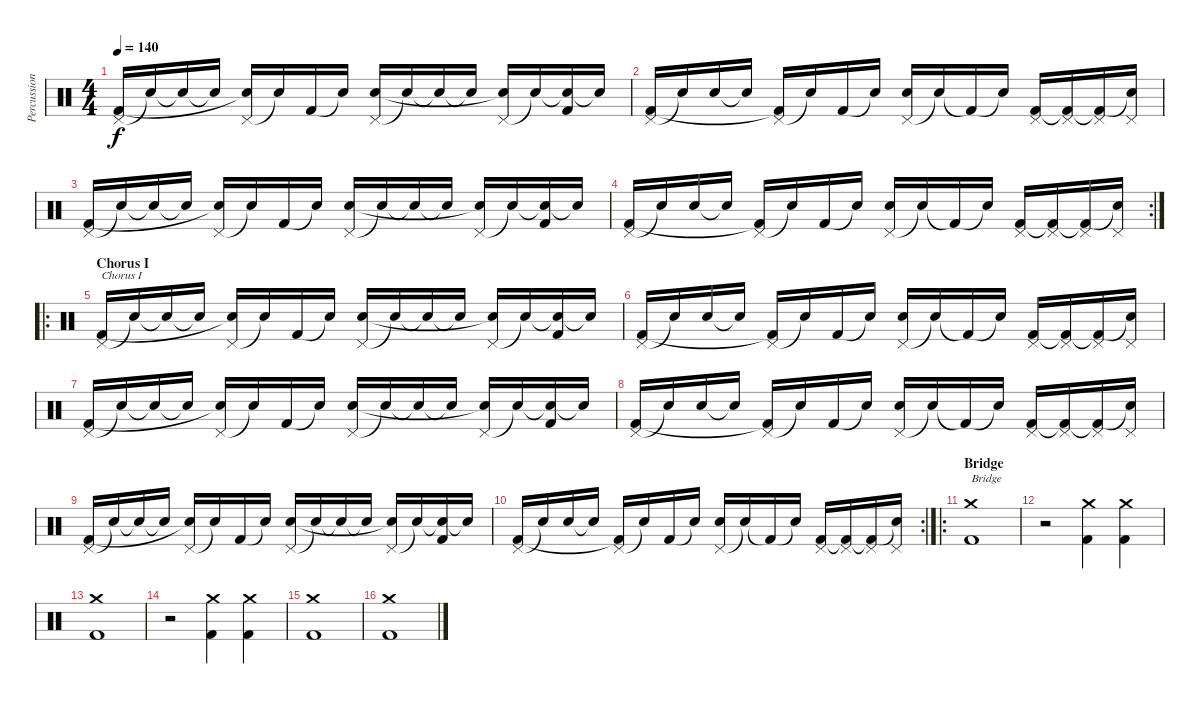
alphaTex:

\track ("Percussion" "Percussion") {instrument percussion}
\staff {score}
\articulation defaults
\ts (4 4)
\tempo 140
\clef neutral
\ks c
("Pedal Hi-Hat (hit)" "Kick (hit) 2").16{dy f} "Snare (hit)"{t}.16 "Snare (hit)"{t}.16 "Snare (hit)"{t}.16 ("Pedal Hi-Hat (hit)" "Snare (hit)"{t}).16 "Snare (hit)"{t}.16 "Kick (hit) 2".16 "Snare (hit)"{t}.16 ("Pedal Hi-Hat (hit)" "Electric Snare (hit)").16 "Snare (hit)"{t}.16 "Snare (hit)"{t}.16 "Snare (hit)"{t}.16 ("Pedal Hi-Hat (hit)" "Snare (hit)"{t}).16 "Snare (hit)"{t}.16 ("Snare (hit)"{t} "Kick (hit) 2").16 "Snare (hit)"{t}.16 |
("Pedal Hi-Hat (hit)" "Kick (hit) 2").16 "Snare (hit)"{t}.16 "Electric Snare (hit)".16 "Snare (hit)"{t}.16 ("Pedal Hi-Hat (hit)" "Kick (hit) 2"{t}).16 "Snare (hit)"{t}.16 "Kick (hit) 2".16 "Snare (hit)"{t}.16 ("Pedal Hi-Hat (hit)" "Electric Snare (hit)").16 "Snare (hit)"{t}.16 "Kick (hit) 2"{t}.16 "Snare (hit)"{t}.16 ("Pedal Hi-Hat (hit)" "Kick (hit) 2").16 ("Pedal Hi-Hat (hit)" "Kick (hit) 2"{t}).16 ("Pedal Hi-Hat (hit)" "Kick (hit) 2"{t}).16 ("Pedal Hi-Hat (hit)" "Snare (hit)"{t}).16 |
("Pedal Hi-Hat (hit)" "Kick (hit) 2").16 "Snare (hit)"{t}.16 "Snare (hit)"{t}.16 "Snare (hit)"{t}.16 ("Pedal Hi-Hat (hit)" "Snare (hit)"{t}).16 "Snare (hit)"{t}.16 "Kick (hit) 2".16 "Snare (hit)"{t}.16 ("Pedal Hi-Hat (hit)" "Electric Snare (hit)").16 "Snare (hit)"{t}.16 "Snare (hit)"{t}.16 "Snare (hit)"{t}.16 ("Pedal Hi-Hat (hit)" "Snare (hit)"{t}).16 "Snare (hit)"{t}.16 ("Snare (hit)"{t} "Kick (hit) 2").16 "Snare (hit)"{t}.16 |
\rc 2
("Pedal Hi-Hat (hit)" "Kick (hit) 2").16 "Snare (hit)"{t}.16 "Electric Snare (hit)".16 "Snare (hit)"{t}.16 ("Pedal Hi-Hat (hit)" "Kick (hit) 2"{t}).16 "Snare (hit)"{t}.16 "Kick (hit) 2".16 "Snare (hit)"{t}.16 ("Pedal Hi-Hat (hit)" "Electric Snare (hit)").16 "Snare (hit)"{t}.16 "Kick (hit) 2"{t}.16 "Snare (hit)"{t}.16 ("Pedal Hi-Hat (hit)" "Kick (hit) 2").16 ("Pedal Hi-Hat (hit)" "Kick (hit) 2"{t}).16 ("Pedal Hi-Hat (hit)" "Kick (hit) 2"{t}).16 ("Pedal Hi-Hat (hit)" "Snare (hit)"{t}).16 |
\ro
\section ("" "Chorus I")
("Pedal Hi-Hat (hit)" "Kick (hit) 2").16{txt "Chorus I"} "Snare (hit)"{t}.16 "Snare (hit)"{t}.16 "Snare (hit)"{t}.16 ("Pedal Hi-Hat (hit)" "Snare (hit)"{t}).16 "Snare (hit)"{t}.16 "Kick (hit) 2".16 "Snare (hit)"{t}.16 ("Pedal Hi-Hat (hit)" "Electric Snare (hit)").16 "Snare (hit)"{t}.16 "Snare (hit)"{t}.16 "Snare (hit)"{t}.16 ("Pedal Hi-Hat (hit)" "Snare (hit)"{t}).16 "Snare (hit)"{t}.16 ("Snare (hit)"{t} "Kick (hit) 2").16 "Snare (hit)"{t}.16 |
("Pedal Hi-Hat (hit)" "Kick (hit) 2").16 "Snare (hit)"{t}.16 "Electric Snare (hit)".16 "Snare (hit)"{t}.16 ("Pedal Hi-Hat (hit)" "Kick (hit) 2"{t}).16 "Snare (hit)"{t}.16 "Kick (hit) 2".16 "Snare (hit)"{t}.16 ("Pedal Hi-Hat (hit)" "Electric Snare (hit)").16 "Snare (hit)"{t}.16 "Kick (hit) 2"{t}.16 "Snare (hit)"{t}.16 ("Pedal Hi-Hat (hit)" "Kick (hit) 2").16 ("Pedal Hi-Hat (hit)" "Kick (hit) 2"{t}).16 ("Pedal Hi-Hat (hit)" "Kick (hit) 2"{t}).16 ("Pedal Hi-Hat (hit)" "Snare (hit)"{t}).16 |
("Pedal Hi-Hat (hit)" "Kick (hit) 2").16 "Snare (hit)"{t}.16 "Snare (hit)"{t}.16 "Snare (hit)"{t}.16 ("Pedal Hi-Hat (hit)" "Snare (hit)"{t}).16 "Snare (hit)"{t}.16 "Kick (hit) 2".16 "Snare (hit)"{t}.16 ("Pedal Hi-Hat (hit)" "Electric Snare (hit)").16 "Snare (hit)"{t}.16 "Snare (hit)"{t}.16 "Snare (hit)"{t}.16 ("Pedal Hi-Hat (hit)" "Snare (hit)"{t}).16 "Snare (hit)"{t}.16 ("Snare (hit)"{t} "Kick (hit) 2").16 "Snare (hit)"{t}.16 |
("Pedal Hi-Hat (hit)" "Kick (hit) 2").16 "Snare (hit)"{t}.16 "Electric Snare (hit)".16 "Snare (hit)"{t}.16 ("Pedal Hi-Hat (hit)" "Kick (hit) 2"{t}).16 "Snare (hit)"{t}.16 "Kick (hit) 2".16 "Snare (hit)"{t}.16 ("Pedal Hi-Hat (hit)" "Electric Snare (hit)").16 "Snare (hit)"{t}.16 "Kick (hit) 2"{t}.16 "Snare (hit)"{t}.16 ("Pedal Hi-Hat (hit)" "Kick (hit) 2").16 ("Pedal Hi-Hat (hit)" "Kick (hit) 2"{t}).16 ("Pedal Hi-Hat (hit)" "Kick (hit) 2"{t}).16 ("Pedal Hi-Hat (hit)" "Snare (hit)"{t}).16 |
("Pedal Hi-Hat (hit)" "Kick (hit) 2").16 "Snare (hit)"{t}.16 "Snare (hit)"{t}.16 "Snare (hit)"{t}.16 ("Pedal Hi-Hat (hit)" "Snare (hit)"{t}).16 "Snare (hit)"{t}.16 "Kick (hit) 2".16 "Snare (hit)"{t}.16 ("Pedal Hi-Hat (hit)" "Electric Snare (hit)").16 "Snare (hit)"{t}.16 "Snare (hit)"{t}.16 "Snare (hit)"{t}.16 ("Pedal Hi-Hat (hit)" "Snare (hit)"{t}).16 "Snare (hit)"{t}.16 ("Snare (hit)"{t} "Kick (hit) 2").16 "Snare (hit)"{t}.16 |
\rc 2
("Pedal Hi-Hat (hit)" "Kick (hit) 2").16 "Snare (hit)"{t}.16 "Electric Snare (hit)".16 "Snare (hit)"{t}.16 ("Pedal Hi-Hat (hit)" "Kick (hit) 2"{t}).16 "Snare (hit)"{t}.16 "Kick (hit) 2".16 "Snare (hit)"{t}.16 ("Pedal Hi-Hat (hit)" "Electric Snare (hit)").16 "Snare (hit)"{t}.16 "Kick (hit) 2"{t}.16 "Snare (hit)"{t}.16 ("Pedal Hi-Hat (hit)" "Kick (hit) 2").16 ("Pedal Hi-Hat (hit)" "Kick (hit) 2"{t}).16 ("Pedal Hi-Hat (hit)" "Kick (hit) 2"{t}).16 ("Pedal Hi-Hat (hit)" "Snare (hit)"{t}).16 |
\ro
\section ("" "Bridge")
("Crash medium (hit)" "Kick (hit) 2").1{txt "Bridge"} |
r.2 ("Crash medium (hit)" "Kick (hit) 2").4 ("Crash medium (hit)" "Kick (hit) 2").4 |
("Crash medium (hit)" "Kick (hit) 2").1 |
r.2 ("Crash medium (hit)" "Kick (hit) 2").4 ("Crash medium (hit)" "Kick (hit) 2").4 |
("Crash medium (hit)" "Kick (hit) 2").1 |
("Crash medium (hit)" "Kick (hit) 2").1
